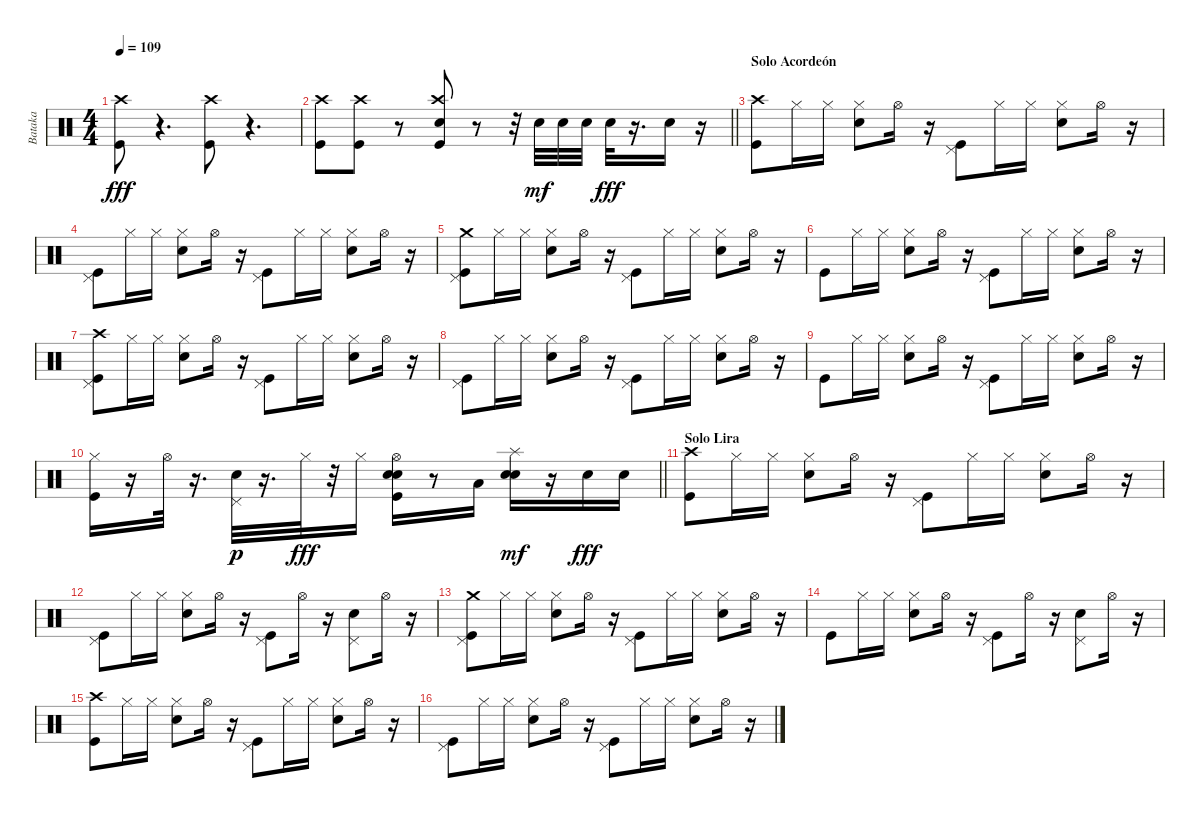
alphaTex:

\track ("Bataka" "Bataka") {instrument percussion}
\staff {score}
\articulation defaults
\ts (4 4)
\tempo 109
\clef neutral
\ks c
("Kick (hit)" "Crash high (hit)").8{dy fff} r.4{d} ("Kick (hit)" "Crash high (hit)").8 r.4{d} |
\barLineRight lightlight
("Kick (hit)" "Crash high (hit)").8 ("Crash high (hit)" "Kick (hit)").8 r.8 ("Kick (hit)" "Crash high (hit)" "Snare (hit) 2").8 r.8 r.32 "Snare (hit) 2".32{dy mf} "Snare (hit) 2".32 "Snare (hit) 2".32 "Snare (hit) 2".32{dy fff} r.16{d} "Snare (hit) 2".16 r.16 |
\section ("" "Solo Acordeón")
("Kick (hit)" "Crash high (hit)").8 "Hi-Hat (closed)".16 "Hi-Hat (closed)".16 ("Snare (hit) 2" "Hi-Hat (closed)").8 "Hi-Hat (open)".16 r.16 ("Kick (hit)" "Pedal Hi-Hat (hit)").8 "Hi-Hat (closed)".16 "Hi-Hat (closed)".16 ("Snare (hit) 2" "Hi-Hat (closed)").8 "Hi-Hat (open)".16 r.16 |
("Kick (hit)" "Pedal Hi-Hat (hit)").8 "Hi-Hat (closed)".16 "Hi-Hat (closed)".16 ("Snare (hit) 2" "Hi-Hat (closed)").8 "Hi-Hat (open)".16 r.16 ("Kick (hit)" "Pedal Hi-Hat (hit)").8 "Hi-Hat (closed)".16 "Hi-Hat (closed)".16 ("Snare (hit) 2" "Hi-Hat (closed)").8 "Hi-Hat (open)".16 r.16 |
("Kick (hit)" "Pedal Hi-Hat (hit)" "Crash medium (hit)").8 "Hi-Hat (closed)".16 "Hi-Hat (closed)".16 ("Snare (hit) 2" "Hi-Hat (closed)").8 "Hi-Hat (open)".16 r.16 ("Kick (hit)" "Pedal Hi-Hat (hit)").8 "Hi-Hat (closed)".16 "Hi-Hat (closed)".16 ("Snare (hit) 2" "Hi-Hat (closed)").8 "Hi-Hat (open)".16 r.16 |
"Kick (hit)".8 "Hi-Hat (closed)".16 "Hi-Hat (closed)".16 ("Snare (hit) 2" "Hi-Hat (closed)").8 "Hi-Hat (open)".16 r.16 ("Kick (hit)" "Pedal Hi-Hat (hit)").8 "Hi-Hat (closed)".16 "Hi-Hat (closed)".16 ("Snare (hit) 2" "Hi-Hat (closed)").8 "Hi-Hat (open)".16 r.16 |
("Kick (hit)" "Pedal Hi-Hat (hit)" "Crash high (hit)").8 "Hi-Hat (closed)".16 "Hi-Hat (closed)".16 ("Snare (hit) 2" "Hi-Hat (closed)").8 "Hi-Hat (open)".16 r.16 ("Kick (hit)" "Pedal Hi-Hat (hit)").8 "Hi-Hat (closed)".16 "Hi-Hat (closed)".16 ("Snare (hit) 2" "Hi-Hat (closed)").8 "Hi-Hat (open)".16 r.16 |
("Kick (hit)" "Pedal Hi-Hat (hit)").8 "Hi-Hat (closed)".16 "Hi-Hat (closed)".16 ("Snare (hit) 2" "Hi-Hat (closed)").8 "Hi-Hat (open)".16 r.16 ("Kick (hit)" "Pedal Hi-Hat (hit)").8 "Hi-Hat (closed)".16 "Hi-Hat (closed)".16 ("Snare (hit) 2" "Hi-Hat (closed)").8 "Hi-Hat (open)".16 r.16 |
"Kick (hit)".8 "Hi-Hat (closed)".16 "Hi-Hat (closed)".16 ("Snare (hit) 2" "Hi-Hat (closed)").8 "Hi-Hat (open)".16 r.16 ("Kick (hit)" "Pedal Hi-Hat (hit)").8 "Hi-Hat (closed)".16 "Hi-Hat (closed)".16 ("Snare (hit) 2" "Hi-Hat (closed)").8 "Hi-Hat (open)".16 r.16 |
\barLineRight lightlight
("Kick (hit)" "Hi-Hat (closed)").16 r.16 "Hi-Hat (open)".32 r.16{d} ("Snare (hit) 2" "Pedal Hi-Hat (hit)").32{dy p} r.16{d} "Hi-Hat (closed)".32{dy fff} r.32 "Hi-Hat (closed)".16 ("Snare (hit) 2" "Kick (hit)" "Snare (hit) 2" "Hi-Hat (open)").16 r.8 "Low Floor Tom (hit)".16 ("Snare (hit) 2" "Snare (hit) 2" "Splash (hit)").16{dy mf} r.16 "Snare (hit) 2".16{dy fff} "Snare (hit) 2".16 |
\section ("" "Solo Lira")
("Kick (hit)" "Crash high (hit)").8 "Hi-Hat (closed)".16 "Hi-Hat (closed)".16 ("Snare (hit) 2" "Hi-Hat (closed)").8 "Hi-Hat (open)".16 r.16 ("Kick (hit)" "Pedal Hi-Hat (hit)").8 "Hi-Hat (closed)".16 "Hi-Hat (closed)".16 ("Snare (hit) 2" "Hi-Hat (closed)").8 "Hi-Hat (open)".16 r.16 |
("Kick (hit)" "Pedal Hi-Hat (hit)").8 "Hi-Hat (closed)".16 "Hi-Hat (closed)".16 ("Snare (hit) 2" "Hi-Hat (closed)").8 "Hi-Hat (open)".16 r.16 ("Kick (hit)" "Pedal Hi-Hat (hit)").8 "Hi-Hat (open)".16 r.16 ("Snare (hit) 2" "Pedal Hi-Hat (hit)").8 "Hi-Hat (open)".16 r.16 |
("Kick (hit)" "Pedal Hi-Hat (hit)" "Crash medium (hit)").8 "Hi-Hat (closed)".16 "Hi-Hat (closed)".16 ("Snare (hit) 2" "Hi-Hat (closed)").8 "Hi-Hat (open)".16 r.16 ("Kick (hit)" "Pedal Hi-Hat (hit)").8 "Hi-Hat (closed)".16 "Hi-Hat (closed)".16 ("Snare (hit) 2" "Hi-Hat (closed)").8 "Hi-Hat (open)".16 r.16 |
"Kick (hit)".8 "Hi-Hat (closed)".16 "Hi-Hat (closed)".16 ("Snare (hit) 2" "Hi-Hat (closed)").8 "Hi-Hat (open)".16 r.16 ("Kick (hit)" "Pedal Hi-Hat (hit)").8 "Hi-Hat (open)".16 r.16 ("Snare (hit) 2" "Pedal Hi-Hat (hit)").8 "Hi-Hat (open)".16 r.16 |
("Kick (hit)" "Crash high (hit)").8 "Hi-Hat (closed)".16 "Hi-Hat (closed)".16 ("Snare (hit) 2" "Hi-Hat (closed)").8 "Hi-Hat (open)".16 r.16 ("Kick (hit)" "Pedal Hi-Hat (hit)").8 "Hi-Hat (closed)".16 "Hi-Hat (closed)".16 ("Snare (hit) 2" "Hi-Hat (closed)").8 "Hi-Hat (open)".16 r.16 |
("Kick (hit)" "Pedal Hi-Hat (hit)").8 "Hi-Hat (closed)".16 "Hi-Hat (closed)".16 ("Snare (hit) 2" "Hi-Hat (closed)").8 "Hi-Hat (open)".16 r.16 ("Kick (hit)" "Pedal Hi-Hat (hit)").8 "Hi-Hat (closed)".16 "Hi-Hat (closed)".16 ("Snare (hit) 2" "Hi-Hat (closed)").8 "Hi-Hat (open)".16 r.16
